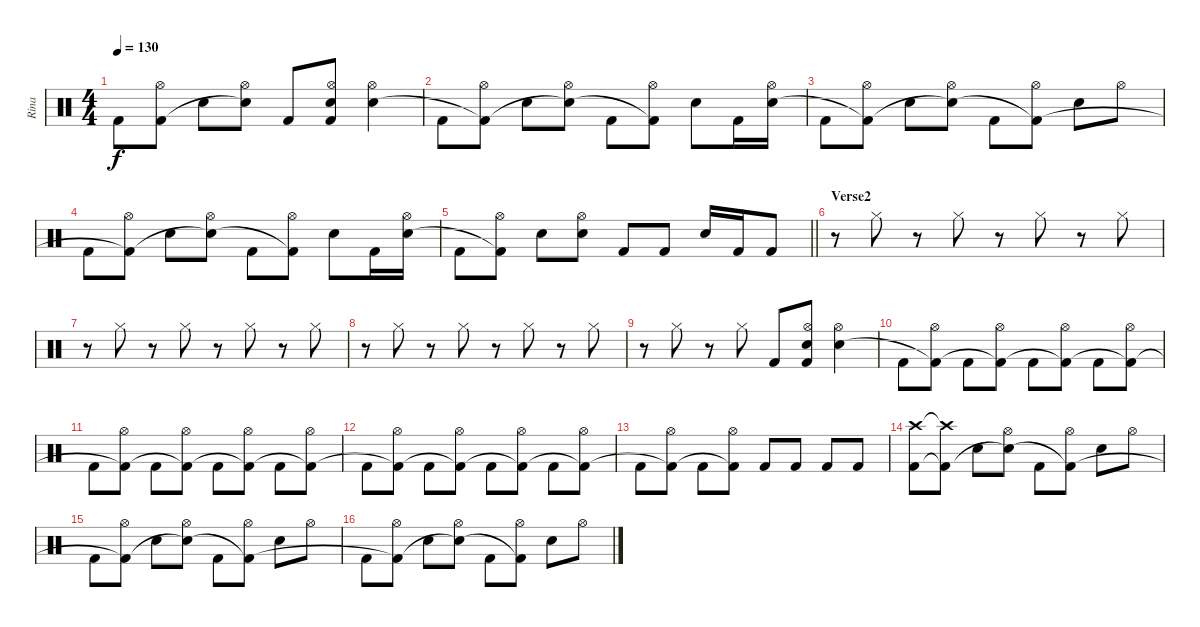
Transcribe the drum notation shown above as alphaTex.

\track ("Rina" "Rina") {instrument percussion}
\staff {score}
\articulation defaults
\ts (4 4)
\tempo 130
\clef neutral
\ks c "Kick (hit) 2".8{dy f}
("Hi-Hat (open)" "Kick (hit) 2"{t}).8 "Snare (hit) 2".8 ("Hi-Hat (open)" "Snare (hit) 2"{t}).8 "Kick (hit) 2".8 ("Hi-Hat (open)" "Snare (hit) 2" "Kick (hit) 2").8 ("Hi-Hat (open)" "Snare (hit) 2").4 |
"Kick (hit) 2".8 ("Hi-Hat (open)" "Kick (hit) 2"{t}).8 "Snare (hit) 2".8 ("Hi-Hat (open)" "Snare (hit) 2"{t}).8 "Kick (hit) 2".8 ("Hi-Hat (open)" "Kick (hit) 2"{t}).8 "Snare (hit) 2".8 "Kick (hit) 2".16 ("Hi-Hat (open)" "Snare (hit) 2").16 |
"Kick (hit) 2".8 ("Hi-Hat (open)" "Kick (hit) 2"{t}).8 "Snare (hit) 2".8 ("Hi-Hat (open)" "Snare (hit) 2"{t}).8 "Kick (hit) 2".8 ("Hi-Hat (open)" "Kick (hit) 2"{t}).8 "Snare (hit) 2".8 "Hi-Hat (open)".8 |
"Kick (hit) 2".8 ("Hi-Hat (open)" "Kick (hit) 2"{t}).8 "Snare (hit) 2".8 ("Hi-Hat (open)" "Snare (hit) 2"{t}).8 "Kick (hit) 2".8 ("Hi-Hat (open)" "Kick (hit) 2"{t}).8 "Snare (hit) 2".8 "Kick (hit) 2".16 ("Hi-Hat (open)" "Snare (hit) 2").16 |
\barLineRight lightlight "Kick (hit) 2".8
("Hi-Hat (open)" "Kick (hit) 2"{t}).8 "Snare (hit) 2".8 ("Hi-Hat (open)" "Snare (hit) 2").8 "Kick (hit) 2".8 "Kick (hit) 2".8 "Snare (hit) 2".16 "Kick (hit) 2".16 "Kick (hit) 2".8 |
\section ("" "Verse2")
r.8 "Hi-Hat (closed)".8 r.8 "Hi-Hat (closed)".8 r.8 "Hi-Hat (closed)".8 r.8 "Hi-Hat (closed)".8 |
r.8 "Hi-Hat (closed)".8 r.8 "Hi-Hat (closed)".8 r.8 "Hi-Hat (closed)".8 r.8 "Hi-Hat (closed)".8 |
r.8 "Hi-Hat (closed)".8 r.8 "Hi-Hat (closed)".8 r.8 "Hi-Hat (closed)".8 r.8 "Hi-Hat (closed)".8 |
r.8 "Hi-Hat (closed)".8 r.8 "Hi-Hat (closed)".8 "Kick (hit) 2".8 ("Hi-Hat (open)" "Snare (hit) 2" "Kick (hit) 2").8 ("Hi-Hat (open)" "Snare (hit) 2").4 |
"Kick (hit) 2".8 ("Hi-Hat (open)" "Kick (hit) 2"{t}).8 "Kick (hit) 2".8 ("Hi-Hat (open)" "Kick (hit) 2"{t}).8 "Kick (hit) 2".8 ("Hi-Hat (open)" "Kick (hit) 2"{t}).8 "Kick (hit) 2".8 ("Hi-Hat (open)" "Kick (hit) 2"{t}).8 |
"Kick (hit) 2".8 ("Hi-Hat (open)" "Kick (hit) 2"{t}).8 "Kick (hit) 2".8 ("Hi-Hat (open)" "Kick (hit) 2"{t}).8 "Kick (hit) 2".8 ("Hi-Hat (open)" "Kick (hit) 2"{t}).8 "Kick (hit) 2".8 ("Hi-Hat (open)" "Kick (hit) 2"{t}).8 |
"Kick (hit) 2".8 ("Hi-Hat (open)" "Kick (hit) 2"{t}).8 "Kick (hit) 2".8 ("Hi-Hat (open)" "Kick (hit) 2"{t}).8 "Kick (hit) 2".8 ("Hi-Hat (open)" "Kick (hit) 2"{t}).8 "Kick (hit) 2".8 ("Hi-Hat (open)" "Kick (hit) 2"{t}).8 |
"Kick (hit) 2".8 ("Hi-Hat (open)" "Kick (hit) 2"{t}).8 "Kick (hit) 2".8 ("Hi-Hat (open)" "Kick (hit) 2"{t}).8 "Kick (hit) 2".8 "Kick (hit) 2".8 "Kick (hit) 2".8 "Kick (hit) 2".8 |
("Crash high (hit)" "Kick (hit) 2").8 ("Crash high (hit)"{t} "Kick (hit) 2"{t}).8 "Snare (hit) 2".8 ("Hi-Hat (open)" "Snare (hit) 2"{t}).8 "Kick (hit) 2".8 ("Hi-Hat (open)" "Kick (hit) 2"{t}).8 "Snare (hit) 2".8 "Hi-Hat (open)".8 |
"Kick (hit) 2".8 ("Hi-Hat (open)" "Kick (hit) 2"{t}).8 "Snare (hit) 2".8 ("Hi-Hat (open)" "Snare (hit) 2"{t}).8 "Kick (hit) 2".8 ("Hi-Hat (open)" "Kick (hit) 2"{t}).8 "Snare (hit) 2".8 "Hi-Hat (open)".8 |
"Kick (hit) 2".8 ("Hi-Hat (open)" "Kick (hit) 2"{t}).8 "Snare (hit) 2".8 ("Hi-Hat (open)" "Snare (hit) 2"{t}).8 "Kick (hit) 2".8 ("Hi-Hat (open)" "Kick (hit) 2"{t}).8 "Snare (hit) 2".8 "Hi-Hat (open)".8
